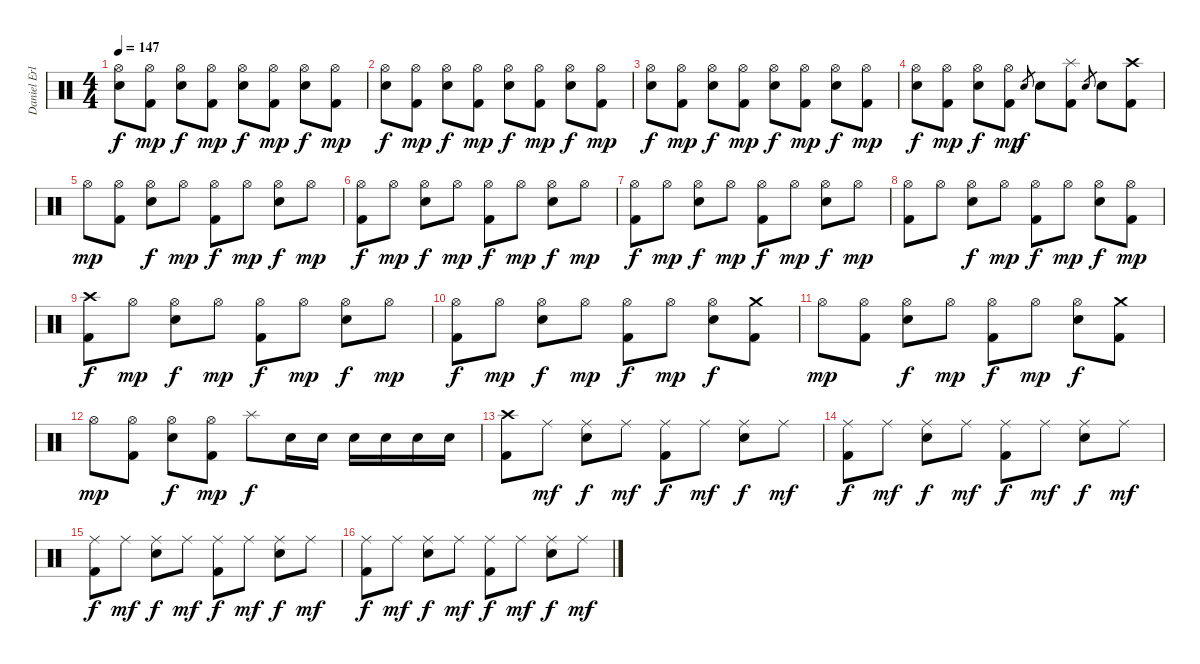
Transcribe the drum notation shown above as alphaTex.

\track ("Daniel Erlandsson" "Daniel Erl") {instrument percussion}
\staff {score}
\articulation defaults
\ts (4 4)
\tempo 147
\clef neutral
\ks c
("Hi-Hat (open)" "Electric Snare (hit)").8{dy f} ("Hi-Hat (open)" "Kick (hit) 2").8{dy mp} ("Hi-Hat (open)" "Electric Snare (hit)").8{dy f} ("Hi-Hat (open)" "Kick (hit) 2").8{dy mp} ("Hi-Hat (open)" "Electric Snare (hit)").8{dy f} ("Hi-Hat (open)" "Kick (hit) 2").8{dy mp} ("Hi-Hat (open)" "Electric Snare (hit)").8{dy f} ("Hi-Hat (open)" "Kick (hit) 2").8{dy mp} |
("Hi-Hat (open)" "Electric Snare (hit)").8{dy f} ("Hi-Hat (open)" "Kick (hit) 2").8{dy mp} ("Hi-Hat (open)" "Electric Snare (hit)").8{dy f} ("Hi-Hat (open)" "Kick (hit) 2").8{dy mp} ("Hi-Hat (open)" "Electric Snare (hit)").8{dy f} ("Hi-Hat (open)" "Kick (hit) 2").8{dy mp} ("Hi-Hat (open)" "Electric Snare (hit)").8{dy f} ("Hi-Hat (open)" "Kick (hit) 2").8{dy mp} |
("Hi-Hat (open)" "Electric Snare (hit)").8{dy f} ("Hi-Hat (open)" "Kick (hit) 2").8{dy mp} ("Hi-Hat (open)" "Electric Snare (hit)").8{dy f} ("Hi-Hat (open)" "Kick (hit) 2").8{dy mp} ("Hi-Hat (open)" "Electric Snare (hit)").8{dy f} ("Hi-Hat (open)" "Kick (hit) 2").8{dy mp} ("Hi-Hat (open)" "Electric Snare (hit)").8{dy f} ("Hi-Hat (open)" "Kick (hit) 2").8{dy mp} |
("Hi-Hat (open)" "Electric Snare (hit)").8{dy f} ("Hi-Hat (open)" "Kick (hit) 2").8{dy mp} ("Hi-Hat (open)" "Electric Snare (hit)").8{dy f} ("Hi-Hat (open)" "Kick (hit) 2").8{dy mp} "Electric Snare (hit)".8{gr dy f} "Electric Snare (hit)".8 ("Splash (hit)" "Kick (hit) 2").8 "Electric Snare (hit)".8{gr} "Electric Snare (hit)".8 ("Crash high (hit)" "Kick (hit) 2").8 |
"Hi-Hat (open)".8{dy mp} ("Hi-Hat (open)" "Kick (hit) 2").8 ("Hi-Hat (open)" "Electric Snare (hit)").8{dy f} "Hi-Hat (open)".8{dy mp} ("Hi-Hat (open)" "Kick (hit) 2").8{dy f} "Hi-Hat (open)".8{dy mp} ("Hi-Hat (open)" "Electric Snare (hit)").8{dy f} "Hi-Hat (open)".8{dy mp} |
("Hi-Hat (open)" "Kick (hit) 2").8{dy f} "Hi-Hat (open)".8{dy mp} ("Hi-Hat (open)" "Electric Snare (hit)").8{dy f} "Hi-Hat (open)".8{dy mp} ("Hi-Hat (open)" "Kick (hit) 2").8{dy f} "Hi-Hat (open)".8{dy mp} ("Hi-Hat (open)" "Electric Snare (hit)").8{dy f} "Hi-Hat (open)".8{dy mp} |
("Hi-Hat (open)" "Kick (hit) 2").8{dy f} "Hi-Hat (open)".8{dy mp} ("Hi-Hat (open)" "Electric Snare (hit)").8{dy f} "Hi-Hat (open)".8{dy mp} ("Hi-Hat (open)" "Kick (hit) 2").8{dy f} "Hi-Hat (open)".8{dy mp} ("Hi-Hat (open)" "Electric Snare (hit)").8{dy f} "Hi-Hat (open)".8{dy mp} |
("Hi-Hat (open)" "Kick (hit) 2").8 "Hi-Hat (open)".8 ("Hi-Hat (open)" "Electric Snare (hit)").8{dy f} "Hi-Hat (open)".8{dy mp} ("Hi-Hat (open)" "Kick (hit) 2").8{dy f} "Hi-Hat (open)".8{dy mp} ("Hi-Hat (open)" "Electric Snare (hit)").8{dy f} ("Hi-Hat (open)" "Kick (hit) 2").8{dy mp} |
("Crash high (hit)" "Kick (hit) 2").8{dy f} "Hi-Hat (open)".8{dy mp} ("Hi-Hat (open)" "Electric Snare (hit)").8{dy f} "Hi-Hat (open)".8{dy mp} ("Hi-Hat (open)" "Kick (hit) 2").8{dy f} "Hi-Hat (open)".8{dy mp} ("Hi-Hat (open)" "Electric Snare (hit)").8{dy f} "Hi-Hat (open)".8{dy mp} |
("Hi-Hat (open)" "Kick (hit) 2").8{dy f} "Hi-Hat (open)".8{dy mp} ("Hi-Hat (open)" "Electric Snare (hit)").8{dy f} "Hi-Hat (open)".8{dy mp} ("Hi-Hat (open)" "Kick (hit) 2").8{dy f} "Hi-Hat (open)".8{dy mp} ("Hi-Hat (open)" "Electric Snare (hit)").8{dy f} ("Crash medium (hit)" "Kick (hit) 2").8 |
"Hi-Hat (open)".8{dy mp} ("Hi-Hat (open)" "Kick (hit) 2").8 ("Hi-Hat (open)" "Electric Snare (hit)").8{dy f} "Hi-Hat (open)".8{dy mp} ("Hi-Hat (open)" "Kick (hit) 2").8{dy f} "Hi-Hat (open)".8{dy mp} ("Hi-Hat (open)" "Electric Snare (hit)").8{dy f} ("Crash medium (hit)" "Kick (hit) 2").8 |
"Hi-Hat (open)".8{dy mp} ("Hi-Hat (open)" "Kick (hit) 2").8 ("Hi-Hat (open)" "Electric Snare (hit)").8{dy f} ("Hi-Hat (open)" "Kick (hit) 2").8{dy mp} "Splash (hit)".8{dy f} "Electric Snare (hit)".16 "Electric Snare (hit)".16 "Electric Snare (hit)".16 "Electric Snare (hit)".16 "Electric Snare (hit)".16 "Electric Snare (hit)".16 |
("Crash high (hit)" "Kick (hit) 2").8 "Ride (middle)".8{dy mf} ("Ride (middle)" "Electric Snare (hit)").8{dy f} "Ride (middle)".8{dy mf} ("Ride (middle)" "Kick (hit) 2").8{dy f} "Ride (middle)".8{dy mf} ("Ride (middle)" "Electric Snare (hit)").8{dy f} "Ride (middle)".8{dy mf} |
("Ride (middle)" "Kick (hit) 2").8{dy f} "Ride (middle)".8{dy mf} ("Ride (middle)" "Electric Snare (hit)").8{dy f} "Ride (middle)".8{dy mf} ("Ride (middle)" "Kick (hit) 2").8{dy f} "Ride (middle)".8{dy mf} ("Ride (middle)" "Electric Snare (hit)").8{dy f} "Ride (middle)".8{dy mf} |
("Ride (middle)" "Kick (hit) 2").8{dy f} "Ride (middle)".8{dy mf} ("Ride (middle)" "Electric Snare (hit)").8{dy f} "Ride (middle)".8{dy mf} ("Ride (middle)" "Kick (hit) 2").8{dy f} "Ride (middle)".8{dy mf} ("Ride (middle)" "Electric Snare (hit)").8{dy f} "Ride (middle)".8{dy mf} |
("Ride (middle)" "Kick (hit) 2").8{dy f} "Ride (middle)".8{dy mf} ("Ride (middle)" "Electric Snare (hit)").8{dy f} "Ride (middle)".8{dy mf} ("Ride (middle)" "Kick (hit) 2").8{dy f} "Ride (middle)".8{dy mf} ("Ride (middle)" "Electric Snare (hit)").8{dy f} "Ride (middle)".8{dy mf}
